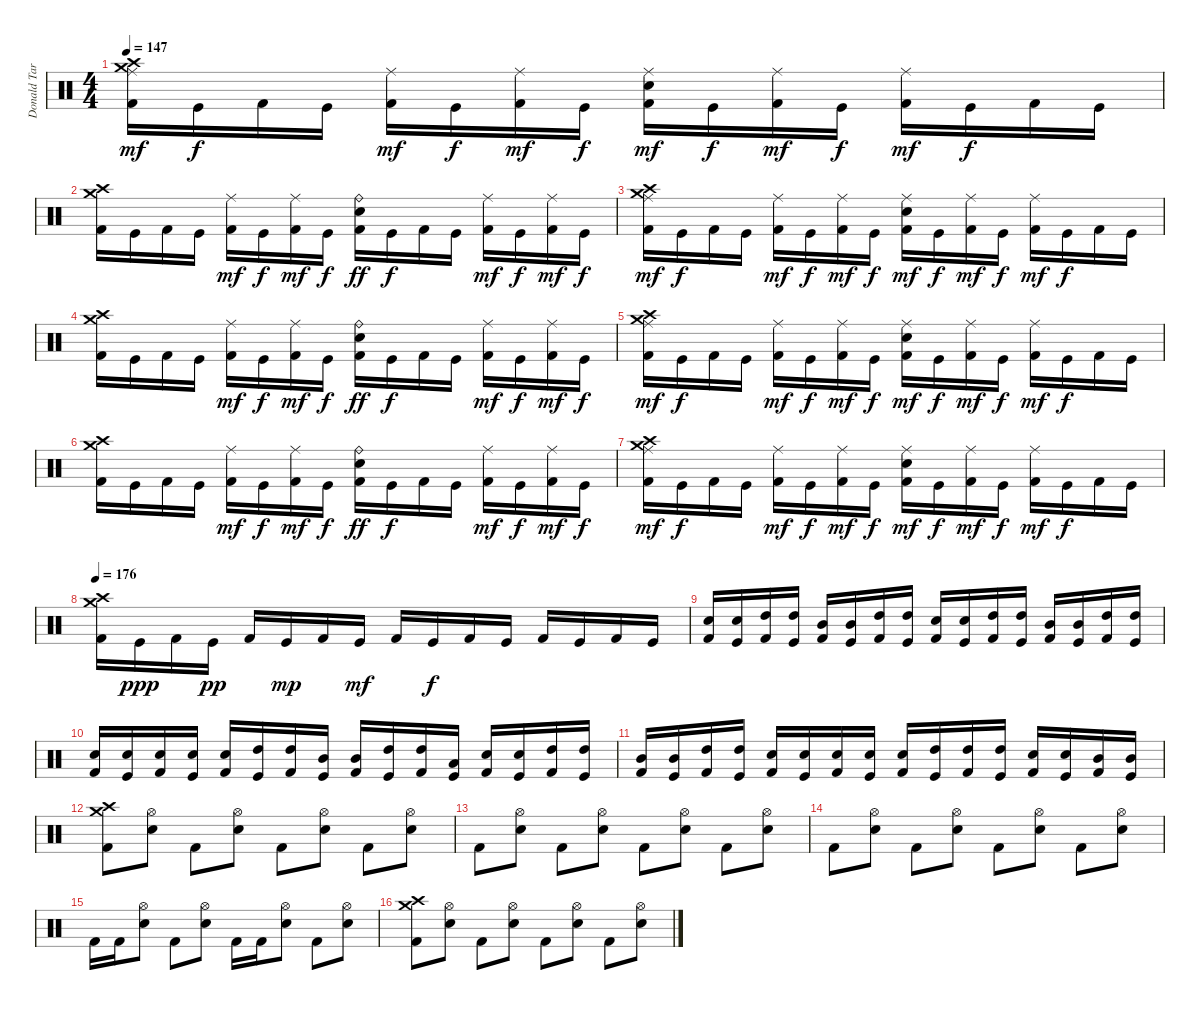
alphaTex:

\track ("Donald Tardy (Drums)" "Donald Tar") {instrument percussion}
\staff {score}
\articulation defaults
\ts (4 4)
\tempo 147
\clef neutral
\ks c
("Kick (hit) 2" "Crash medium (hit)" "Crash high (hit)" "Ride (middle)").16{dy mf} "Kick (hit)".16{dy f} "Kick (hit) 2".16 "Kick (hit)".16 ("Kick (hit) 2" "Ride (middle)").16{dy mf} "Kick (hit)".16{dy f} ("Kick (hit) 2" "Ride (middle)").16{dy mf} "Kick (hit)".16{dy f} ("Kick (hit) 2" "Electric Snare (hit)" "Ride (middle)").16{dy mf} "Kick (hit)".16{dy f} ("Kick (hit) 2" "Ride (middle)").16{dy mf} "Kick (hit)".16{dy f} ("Kick (hit) 2" "Ride (middle)").16{dy mf} "Kick (hit)".16{dy f} "Kick (hit) 2".16 "Kick (hit)".16 |
("Kick (hit) 2" "Crash medium (hit)" "Crash high (hit)").16 "Kick (hit)".16 "Kick (hit) 2".16 "Kick (hit)".16 ("Kick (hit) 2" "Ride (middle)").16{dy mf} "Kick (hit)".16{dy f} ("Kick (hit) 2" "Ride (middle)").16{dy mf} "Kick (hit)".16{dy f} ("Kick (hit) 2" "Electric Snare (hit)" "Ride (bell)").16{dy ff} "Kick (hit)".16{dy f} "Kick (hit) 2".16 "Kick (hit)".16 ("Kick (hit) 2" "Ride (middle)").16{dy mf} "Kick (hit)".16{dy f} ("Kick (hit) 2" "Ride (middle)").16{dy mf} "Kick (hit)".16{dy f} |
("Kick (hit) 2" "Crash medium (hit)" "Crash high (hit)" "Ride (middle)").16{dy mf} "Kick (hit)".16{dy f} "Kick (hit) 2".16 "Kick (hit)".16 ("Kick (hit) 2" "Ride (middle)").16{dy mf} "Kick (hit)".16{dy f} ("Kick (hit) 2" "Ride (middle)").16{dy mf} "Kick (hit)".16{dy f} ("Kick (hit) 2" "Electric Snare (hit)" "Ride (middle)").16{dy mf} "Kick (hit)".16{dy f} ("Kick (hit) 2" "Ride (middle)").16{dy mf} "Kick (hit)".16{dy f} ("Kick (hit) 2" "Ride (middle)").16{dy mf} "Kick (hit)".16{dy f} "Kick (hit) 2".16 "Kick (hit)".16 |
("Kick (hit) 2" "Crash medium (hit)" "Crash high (hit)").16 "Kick (hit)".16 "Kick (hit) 2".16 "Kick (hit)".16 ("Kick (hit) 2" "Ride (middle)").16{dy mf} "Kick (hit)".16{dy f} ("Kick (hit) 2" "Ride (middle)").16{dy mf} "Kick (hit)".16{dy f} ("Kick (hit) 2" "Electric Snare (hit)" "Ride (bell)").16{dy ff} "Kick (hit)".16{dy f} "Kick (hit) 2".16 "Kick (hit)".16 ("Kick (hit) 2" "Ride (middle)").16{dy mf} "Kick (hit)".16{dy f} ("Kick (hit) 2" "Ride (middle)").16{dy mf} "Kick (hit)".16{dy f} |
("Kick (hit) 2" "Crash medium (hit)" "Crash high (hit)" "Ride (middle)").16{dy mf} "Kick (hit)".16{dy f} "Kick (hit) 2".16 "Kick (hit)".16 ("Kick (hit) 2" "Ride (middle)").16{dy mf} "Kick (hit)".16{dy f} ("Kick (hit) 2" "Ride (middle)").16{dy mf} "Kick (hit)".16{dy f} ("Kick (hit) 2" "Electric Snare (hit)" "Ride (middle)").16{dy mf} "Kick (hit)".16{dy f} ("Kick (hit) 2" "Ride (middle)").16{dy mf} "Kick (hit)".16{dy f} ("Kick (hit) 2" "Ride (middle)").16{dy mf} "Kick (hit)".16{dy f} "Kick (hit) 2".16 "Kick (hit)".16 |
("Kick (hit) 2" "Crash medium (hit)" "Crash high (hit)").16 "Kick (hit)".16 "Kick (hit) 2".16 "Kick (hit)".16 ("Kick (hit) 2" "Ride (middle)").16{dy mf} "Kick (hit)".16{dy f} ("Kick (hit) 2" "Ride (middle)").16{dy mf} "Kick (hit)".16{dy f} ("Kick (hit) 2" "Electric Snare (hit)" "Ride (bell)").16{dy ff} "Kick (hit)".16{dy f} "Kick (hit) 2".16 "Kick (hit)".16 ("Kick (hit) 2" "Ride (middle)").16{dy mf} "Kick (hit)".16{dy f} ("Kick (hit) 2" "Ride (middle)").16{dy mf} "Kick (hit)".16{dy f} |
("Kick (hit) 2" "Crash medium (hit)" "Crash high (hit)" "Ride (middle)").16{dy mf} "Kick (hit)".16{dy f} "Kick (hit) 2".16 "Kick (hit)".16 ("Kick (hit) 2" "Ride (middle)").16{dy mf} "Kick (hit)".16{dy f} ("Kick (hit) 2" "Ride (middle)").16{dy mf} "Kick (hit)".16{dy f} ("Kick (hit) 2" "Electric Snare (hit)" "Ride (middle)").16{dy mf} "Kick (hit)".16{dy f} ("Kick (hit) 2" "Ride (middle)").16{dy mf} "Kick (hit)".16{dy f} ("Kick (hit) 2" "Ride (middle)").16{dy mf} "Kick (hit)".16{dy f} "Kick (hit) 2".16 "Kick (hit)".16 |
\tempo 176
("Kick (hit) 2" "Crash medium (hit)" "Crash high (hit)").16 "Kick (hit)".16{dy ppp} "Kick (hit) 2".16 "Kick (hit)".16{dy pp} "Kick (hit) 2".16 "Kick (hit)".16{dy mp} "Kick (hit) 2".16 "Kick (hit)".16{dy mf} "Kick (hit) 2".16 "Kick (hit)".16{dy f} "Kick (hit) 2".16 "Kick (hit)".16 "Kick (hit) 2".16 "Kick (hit)".16 "Kick (hit) 2".16 "Kick (hit)".16 |
("Kick (hit) 2" "Electric Snare (hit)").16 ("Kick (hit)" "Electric Snare (hit)").16 ("Kick (hit) 2" "High Tom (hit)").16 ("Kick (hit)" "High Tom (hit)").16 ("Kick (hit) 2" "Mid Tom (hit)").16 ("Kick (hit)" "Mid Tom (hit)").16 ("Kick (hit) 2" "High Tom (hit)").16 ("Kick (hit)" "High Tom (hit)").16 ("Kick (hit) 2" "Electric Snare (hit)").16 ("Kick (hit)" "Electric Snare (hit)").16 ("Kick (hit) 2" "High Tom (hit)").16 ("Kick (hit)" "High Tom (hit)").16 ("Kick (hit) 2" "Mid Tom (hit)").16 ("Kick (hit)" "Mid Tom (hit)").16 ("Kick (hit) 2" "High Tom (hit)").16 ("Kick (hit)" "High Tom (hit)").16 |
("Kick (hit) 2" "Electric Snare (hit)").16 ("Kick (hit)" "Electric Snare (hit)").16 ("Kick (hit) 2" "Electric Snare (hit)").16 ("Kick (hit)" "Electric Snare (hit)").16 ("Kick (hit) 2" "Electric Snare (hit)").16 ("Kick (hit)" "High Tom (hit)").16 ("Kick (hit) 2" "High Tom (hit)").16 ("Kick (hit)" "Mid Tom (hit)").16 ("Kick (hit) 2" "Mid Tom (hit)").16 ("Kick (hit)" "High Tom (hit)").16 ("Kick (hit) 2" "High Tom (hit)").16 ("Kick (hit)" "Low Tom (hit)").16 ("Kick (hit) 2" "Electric Snare (hit)").16 ("Kick (hit)" "Electric Snare (hit)").16 ("Kick (hit) 2" "High Tom (hit)").16 ("Kick (hit)" "High Tom (hit)").16 |
("Kick (hit) 2" "Mid Tom (hit)").16 ("Kick (hit)" "Mid Tom (hit)").16 ("Kick (hit) 2" "High Tom (hit)").16 ("Kick (hit)" "High Tom (hit)").16 ("Kick (hit) 2" "Electric Snare (hit)").16 ("Kick (hit)" "Electric Snare (hit)").16 ("Kick (hit) 2" "Electric Snare (hit)").16 ("Kick (hit)" "Electric Snare (hit)").16 ("Kick (hit) 2" "Electric Snare (hit)").16 ("Kick (hit)" "High Tom (hit)").16 ("Kick (hit) 2" "High Tom (hit)").16 ("Kick (hit)" "High Tom (hit)").16 ("Kick (hit) 2" "Electric Snare (hit)").16 ("Kick (hit)" "Electric Snare (hit)").16 ("Kick (hit) 2" "Mid Tom (hit)").16 ("Kick (hit)" "Mid Tom (hit)").16 |
("Kick (hit) 2" "Crash medium (hit)" "Crash high (hit)").8 ("Electric Snare (hit)" "Hi-Hat (open)").8 "Kick (hit) 2".8 ("Electric Snare (hit)" "Hi-Hat (open)").8 "Kick (hit) 2".8 ("Electric Snare (hit)" "Hi-Hat (open)").8 "Kick (hit) 2".8 ("Electric Snare (hit)" "Hi-Hat (open)").8 |
"Kick (hit) 2".8 ("Electric Snare (hit)" "Hi-Hat (open)").8 "Kick (hit) 2".8 ("Electric Snare (hit)" "Hi-Hat (open)").8 "Kick (hit) 2".8 ("Electric Snare (hit)" "Hi-Hat (open)").8 "Kick (hit) 2".8 ("Electric Snare (hit)" "Hi-Hat (open)").8 |
"Kick (hit) 2".8 ("Electric Snare (hit)" "Hi-Hat (open)").8 "Kick (hit) 2".8 ("Electric Snare (hit)" "Hi-Hat (open)").8 "Kick (hit) 2".8 ("Electric Snare (hit)" "Hi-Hat (open)").8 "Kick (hit) 2".8 ("Electric Snare (hit)" "Hi-Hat (open)").8 |
"Kick (hit) 2".16 "Kick (hit) 2".16 ("Electric Snare (hit)" "Hi-Hat (open)").8 "Kick (hit) 2".8 ("Electric Snare (hit)" "Hi-Hat (open)").8 "Kick (hit) 2".16 "Kick (hit) 2".16 ("Electric Snare (hit)" "Hi-Hat (open)").8 "Kick (hit) 2".8 ("Electric Snare (hit)" "Hi-Hat (open)").8 |
("Kick (hit) 2" "Crash medium (hit)" "Crash high (hit)").8 ("Electric Snare (hit)" "Hi-Hat (open)").8 "Kick (hit) 2".8 ("Electric Snare (hit)" "Hi-Hat (open)").8 "Kick (hit) 2".8 ("Electric Snare (hit)" "Hi-Hat (open)").8 "Kick (hit) 2".8 ("Electric Snare (hit)" "Hi-Hat (open)").8
